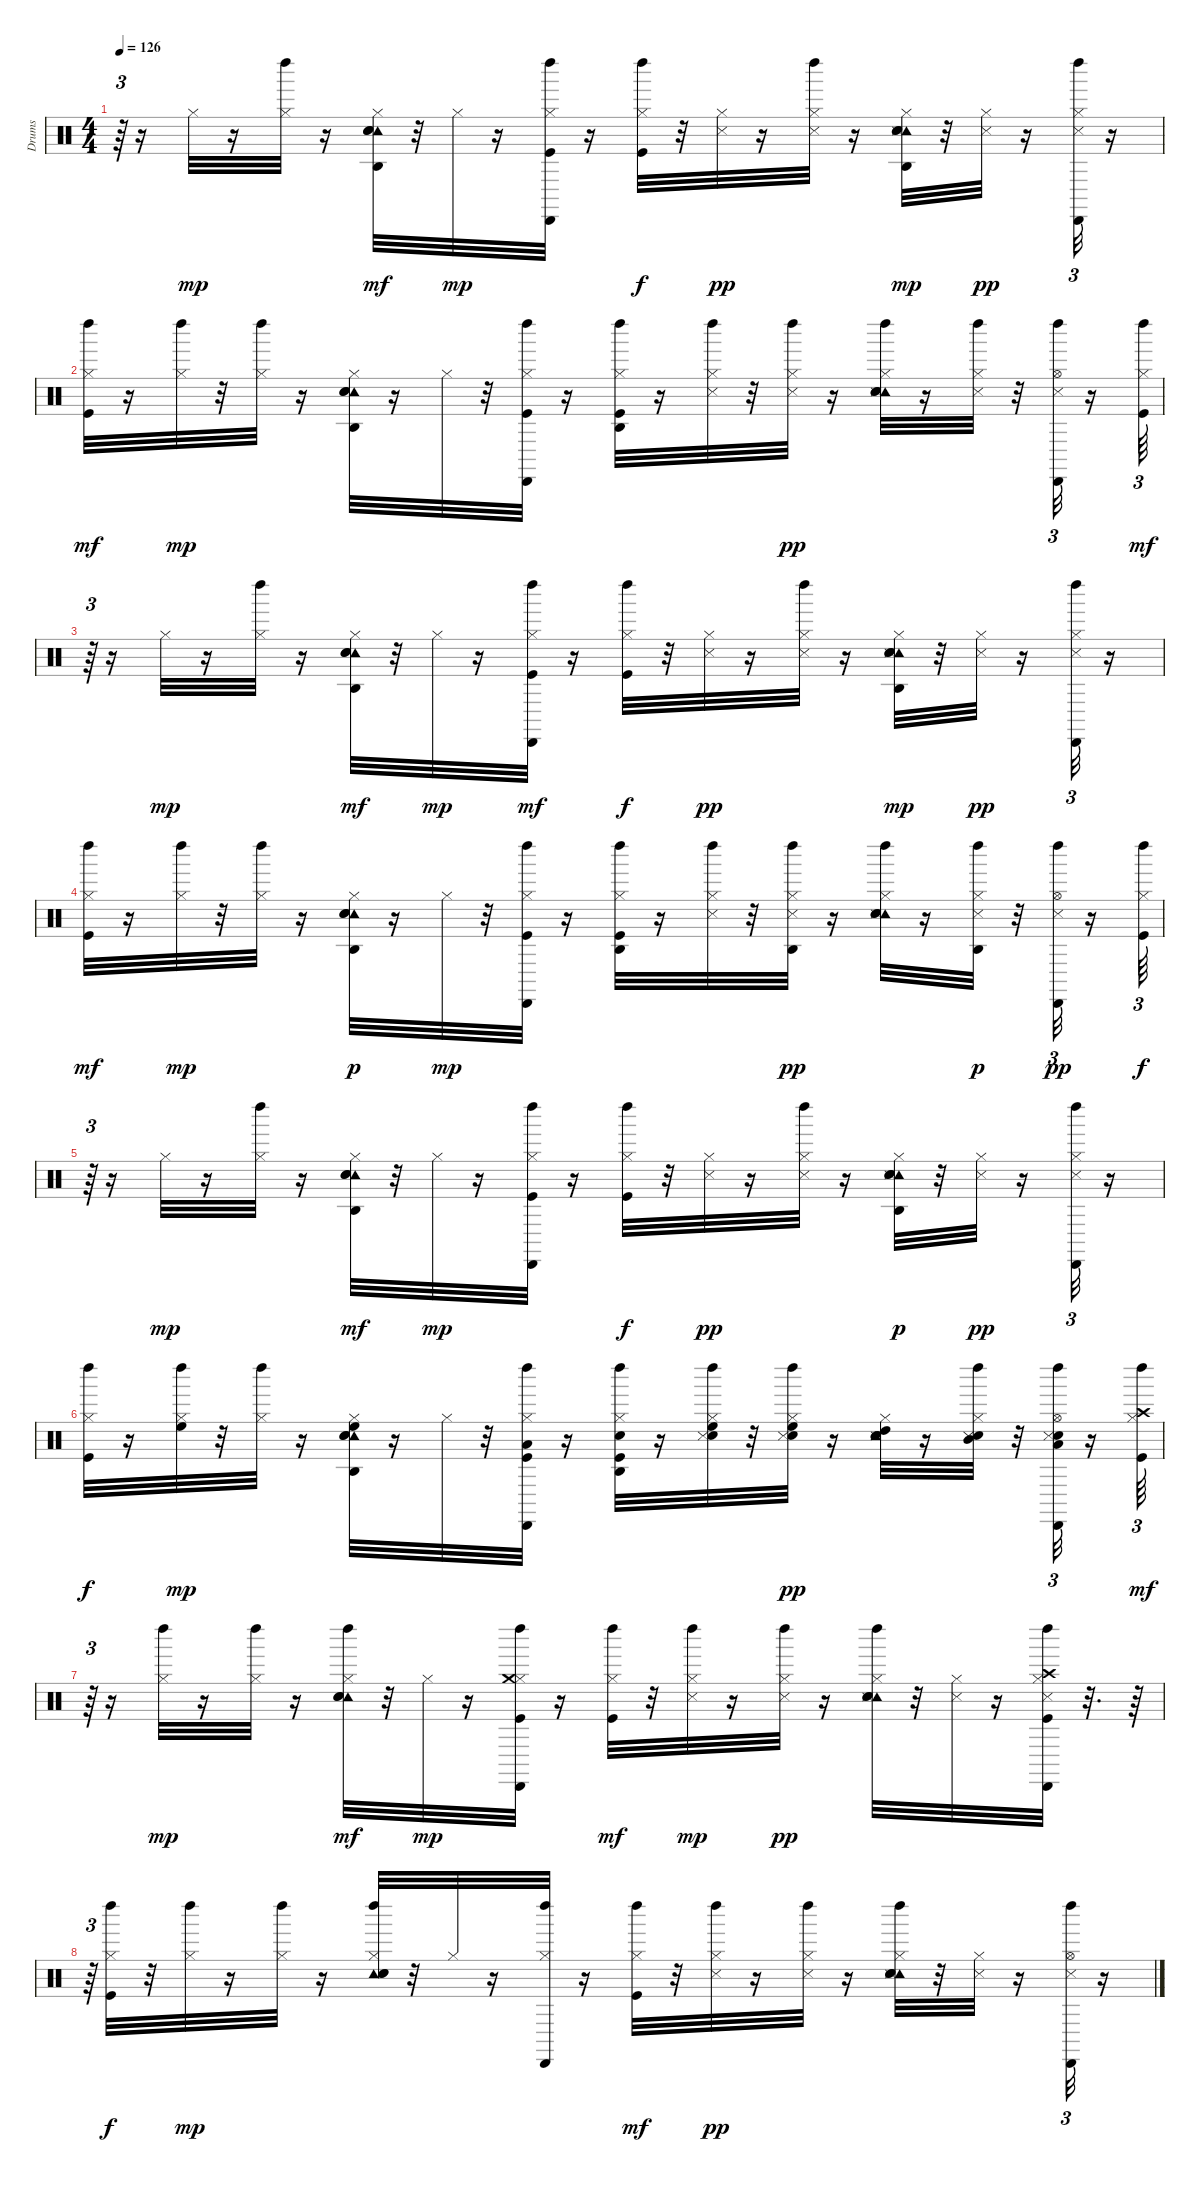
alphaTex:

\track ("Drums" "Drums") {instrument percussion}
\staff {score}
\articulation defaults
\ts (4 4)
\tempo 126
\clef neutral
\ks c
r.64{tu (3 2) dy f} r.16 "Hi-Hat (closed)".32{dy mp} r.16 ("Hi-Hat (closed)" "Left Maraca (hit)").32 r.16 ("Hi-Hat (closed)" "Tambourine (hit)" "Agogo high (hit)" "Snare (hit) 2" "Hand Clap (hit)").32{dy mf} r.32 "Hi-Hat (closed)".32{dy mp} r.16 ("Cabasa (hit)" "Kick (hit)" "Hi-Hat (closed)" "Left Maraca (hit)").32 r.16 ("Hi-Hat (closed)" "Kick (hit)" "Left Maraca (hit)").32{dy f} r.32 ("Hi-Hat (closed)" "Snare (side stick) 3").32{dy pp} r.16 ("Hi-Hat (closed)" "Left Maraca (hit)" "Snare (side stick) 3").32 r.16 ("Hi-Hat (closed)" "Tambourine (hit)" "Hand Clap (hit)" "Snare (hit) 2" "Snare (side stick) 3" "Agogo high (hit)").32{dy mp} r.32 ("Hi-Hat (closed)" "Snare (side stick) 3").32{dy pp} r.16 ("Cabasa (hit)" "Hi-Hat (closed)" "Left Maraca (hit)" "Snare (side stick) 3").32{tu (3 2)} r.16 |
("Kick (hit)" "Hi-Hat (closed)" "Left Maraca (hit)").32{dy mf} r.16 ("Hi-Hat (closed)" "Left Maraca (hit)").32{dy mp} r.32 ("Left Maraca (hit)" "Hi-Hat (closed)").32 r.16 ("Tambourine (hit)" "Snare (hit) 2" "Hi-Hat (closed)" "Agogo high (hit)" "Hand Clap (hit)").32 r.16 "Hi-Hat (closed)".32 r.32 ("Kick (hit)" "Hi-Hat (closed)" "Left Maraca (hit)" "Cabasa (hit)").32 r.16 ("Kick (hit)" "Hi-Hat (closed)" "Left Maraca (hit)" "Agogo high (hit)").32 r.16 ("Hi-Hat (closed)" "Snare (side stick) 3" "Left Maraca (hit)").32 r.32 ("Hi-Hat (closed)" "Left Maraca (hit)" "Snare (side stick) 3").32{dy pp} r.16 ("Hi-Hat (closed)" "Tambourine (hit)" "Hand Clap (hit)" "Snare (hit) 2" "Snare (side stick) 3" "Left Maraca (hit)").32 r.16 ("Hi-Hat (closed)" "Left Maraca (hit)" "Snare (side stick) 3").32 r.32 ("Hi-Hat (open)" "Left Maraca (hit)" "Cabasa (hit)" "Snare (side stick) 3").32{tu (3 2)} r.16 ("Kick (hit)" "Hi-Hat (closed)" "Left Maraca (hit)").64{tu (3 2) dy mf} |
r.64{tu (3 2)} r.16 "Hi-Hat (closed)".32{dy mp} r.16 ("Hi-Hat (closed)" "Left Maraca (hit)").32 r.16 ("Hi-Hat (closed)" "Tambourine (hit)" "Agogo high (hit)" "Snare (hit) 2" "Hand Clap (hit)").32{dy mf} r.32 "Hi-Hat (closed)".32{dy mp} r.16 ("Cabasa (hit)" "Kick (hit)" "Hi-Hat (closed)" "Left Maraca (hit)").32{dy mf} r.16 ("Hi-Hat (closed)" "Kick (hit)" "Left Maraca (hit)").32{dy f} r.32 ("Hi-Hat (closed)" "Snare (side stick) 3").32{dy pp} r.16 ("Hi-Hat (closed)" "Left Maraca (hit)" "Snare (side stick) 3").32 r.16 ("Hi-Hat (closed)" "Tambourine (hit)" "Hand Clap (hit)" "Snare (hit) 2" "Snare (side stick) 3" "Agogo high (hit)").32{dy mp} r.32 ("Hi-Hat (closed)" "Snare (side stick) 3").32{dy pp} r.16 ("Cabasa (hit)" "Hi-Hat (closed)" "Left Maraca (hit)" "Snare (side stick) 3").32{tu (3 2)} r.16 |
("Kick (hit)" "Hi-Hat (closed)" "Left Maraca (hit)").32{dy mf} r.16 ("Hi-Hat (closed)" "Left Maraca (hit)").32{dy mp} r.32 ("Left Maraca (hit)" "Hi-Hat (closed)").32 r.16 ("Tambourine (hit)" "Snare (hit) 2" "Hi-Hat (closed)" "Agogo high (hit)" "Hand Clap (hit)").32{dy p} r.16 "Hi-Hat (closed)".32{dy mp} r.32 ("Kick (hit)" "Hi-Hat (closed)" "Left Maraca (hit)" "Cabasa (hit)").32 r.16 ("Kick (hit)" "Hi-Hat (closed)" "Left Maraca (hit)" "Agogo high (hit)").32 r.16 ("Hi-Hat (closed)" "Snare (side stick) 3" "Left Maraca (hit)").32 r.32 ("Hi-Hat (closed)" "Left Maraca (hit)" "Agogo high (hit)" "Snare (side stick) 3").32{dy pp} r.16 ("Hi-Hat (closed)" "Tambourine (hit)" "Hand Clap (hit)" "Snare (hit) 2" "Snare (side stick) 3" "Left Maraca (hit)").32 r.16 ("Hi-Hat (closed)" "Left Maraca (hit)" "Snare (side stick) 3" "Agogo high (hit)").32{dy p} r.32 ("Hi-Hat (open)" "Left Maraca (hit)" "Cabasa (hit)" "Snare (side stick) 3").32{tu (3 2) dy pp} r.16 ("Kick (hit)" "Hi-Hat (closed)" "Left Maraca (hit)").64{tu (3 2) dy f} |
r.64{tu (3 2)} r.16 "Hi-Hat (closed)".32{dy mp} r.16 ("Hi-Hat (closed)" "Left Maraca (hit)").32 r.16 ("Hi-Hat (closed)" "Tambourine (hit)" "Agogo high (hit)" "Snare (hit) 2" "Hand Clap (hit)").32{dy mf} r.32 "Hi-Hat (closed)".32{dy mp} r.16 ("Cabasa (hit)" "Kick (hit)" "Hi-Hat (closed)" "Left Maraca (hit)").32 r.16 ("Hi-Hat (closed)" "Kick (hit)" "Left Maraca (hit)").32{dy f} r.32 ("Hi-Hat (closed)" "Snare (side stick) 3").32{dy pp} r.16 ("Hi-Hat (closed)" "Left Maraca (hit)" "Snare (side stick) 3").32 r.16 ("Hi-Hat (closed)" "Tambourine (hit)" "Hand Clap (hit)" "Snare (hit) 2" "Snare (side stick) 3" "Agogo high (hit)").32{dy p} r.32 ("Hi-Hat (closed)" "Snare (side stick) 3").32{dy pp} r.16 ("Cabasa (hit)" "Hi-Hat (closed)" "Left Maraca (hit)" "Snare (side stick) 3").32{tu (3 2)} r.16 |
("Kick (hit)" "Hi-Hat (closed)" "Left Maraca (hit)").32{dy f} r.16 ("Hi-Hat (closed)" "High Floor Tom (hit)" "Left Maraca (hit)").32{dy mp} r.32 ("Left Maraca (hit)" "Hi-Hat (closed)").32 r.16 ("Tambourine (hit)" "Snare (hit) 2" "Hi-Hat (closed)" "High Floor Tom (hit)" "Agogo high (hit)" "Hand Clap (hit)").32 r.16 "Hi-Hat (closed)".32 r.32 ("Kick (hit)" "Hi-Hat (closed)" "Low Tom (hit)" "Left Maraca (hit)" "Cabasa (hit)").32 r.16 ("Kick (hit)" "Snare (hit) 2" "Hi-Hat (closed)" "Left Maraca (hit)" "Agogo high (hit)").32 r.16 ("Hi-Hat (closed)" "Snare (hit) 2" "High Floor Tom (hit)" "Snare (side stick) 3" "Left Maraca (hit)").32 r.32 ("Snare (hit) 2" "Hi-Hat (closed)" "Left Maraca (hit)" "High Floor Tom (hit)" "Snare (side stick) 3").32{dy pp} r.16 ("Hi-Hat (closed)" "High Tom (hit)" "Tambourine (hit)" "Hand Clap (hit)" "Snare (hit) 2" "Snare (side stick) 3").32 r.16 ("Hi-Hat (closed)" "Left Maraca (hit)" "Mid Tom (hit)" "Snare (hit) 2" "Snare (side stick) 3").32 r.32 ("Low Tom (hit)" "Hi-Hat (open)" "Left Maraca (hit)" "Cabasa (hit)" "Snare (hit) 2" "Snare (side stick) 3").32{tu (3 2)} r.16 ("Kick (hit)" "Hi-Hat (closed)" "Crash high (hit)" "Left Maraca (hit)").64{tu (3 2) dy mf} |
r.64{tu (3 2)} r.16 ("Hi-Hat (closed)" "Left Maraca (hit)").32{dy mp} r.16 ("Hi-Hat (closed)" "Left Maraca (hit)").32 r.16 ("Hi-Hat (closed)" "Tambourine (hit)" "Snare (hit) 2" "Left Maraca (hit)" "Hand Clap (hit)").32{dy mf} r.32 "Hi-Hat (closed)".32{dy mp} r.16 ("Cabasa (hit)" "Kick (hit)" "Hi-Hat (closed)" "Crash medium (hit)" "Left Maraca (hit)").32 r.16 ("Hi-Hat (closed)" "Kick (hit)" "Left Maraca (hit)").32{dy mf} r.32 ("Hi-Hat (closed)" "Snare (side stick) 3" "Left Maraca (hit)").32{dy mp} r.16 ("Hi-Hat (closed)" "Left Maraca (hit)" "Snare (side stick) 3").32{dy pp} r.16 ("Hi-Hat (closed)" "Tambourine (hit)" "Hand Clap (hit)" "Snare (hit) 2" "Snare (side stick) 3" "Left Maraca (hit)").32 r.32 ("Hi-Hat (closed)" "Snare (side stick) 3").32 r.16 ("Cabasa (hit)" "Crash high (hit)" "Hi-Hat (closed)" "Kick (hit)" "Snare (side stick) 3" "Left Maraca (hit)").32 r.32{d} r.64 |
r.64{tu (3 2)} ("Left Maraca (hit)" "Kick (hit)" "Hi-Hat (closed)").32{dy f} r.32 ("Left Maraca (hit)" "Hi-Hat (closed)").32{dy mp} r.16 ("Left Maraca (hit)" "Hi-Hat (closed)").32 r.16 ("Left Maraca (hit)" "Tambourine (hit)" "Snare (hit) 2" "Hi-Hat (closed)" "Hand Clap (hit)").32 r.32 "Hi-Hat (closed)".32 r.16 ("Hi-Hat (closed)" "Left Maraca (hit)" "Cabasa (hit)").32 r.16 ("Kick (hit)" "Hi-Hat (closed)" "Left Maraca (hit)").32{dy mf} r.32 ("Hi-Hat (closed)" "Left Maraca (hit)" "Snare (side stick) 3").32{dy pp} r.16 ("Hi-Hat (closed)" "Left Maraca (hit)" "Snare (side stick) 3").32 r.16 ("Hi-Hat (closed)" "Tambourine (hit)" "Hand Clap (hit)" "Snare (hit) 2" "Snare (side stick) 3" "Left Maraca (hit)").32 r.32 ("Hi-Hat (closed)" "Snare (side stick) 3").32 r.16 ("Hi-Hat (open)" "Cabasa (hit)" "Snare (side stick) 3" "Left Maraca (hit)").32{tu (3 2)} r.16
